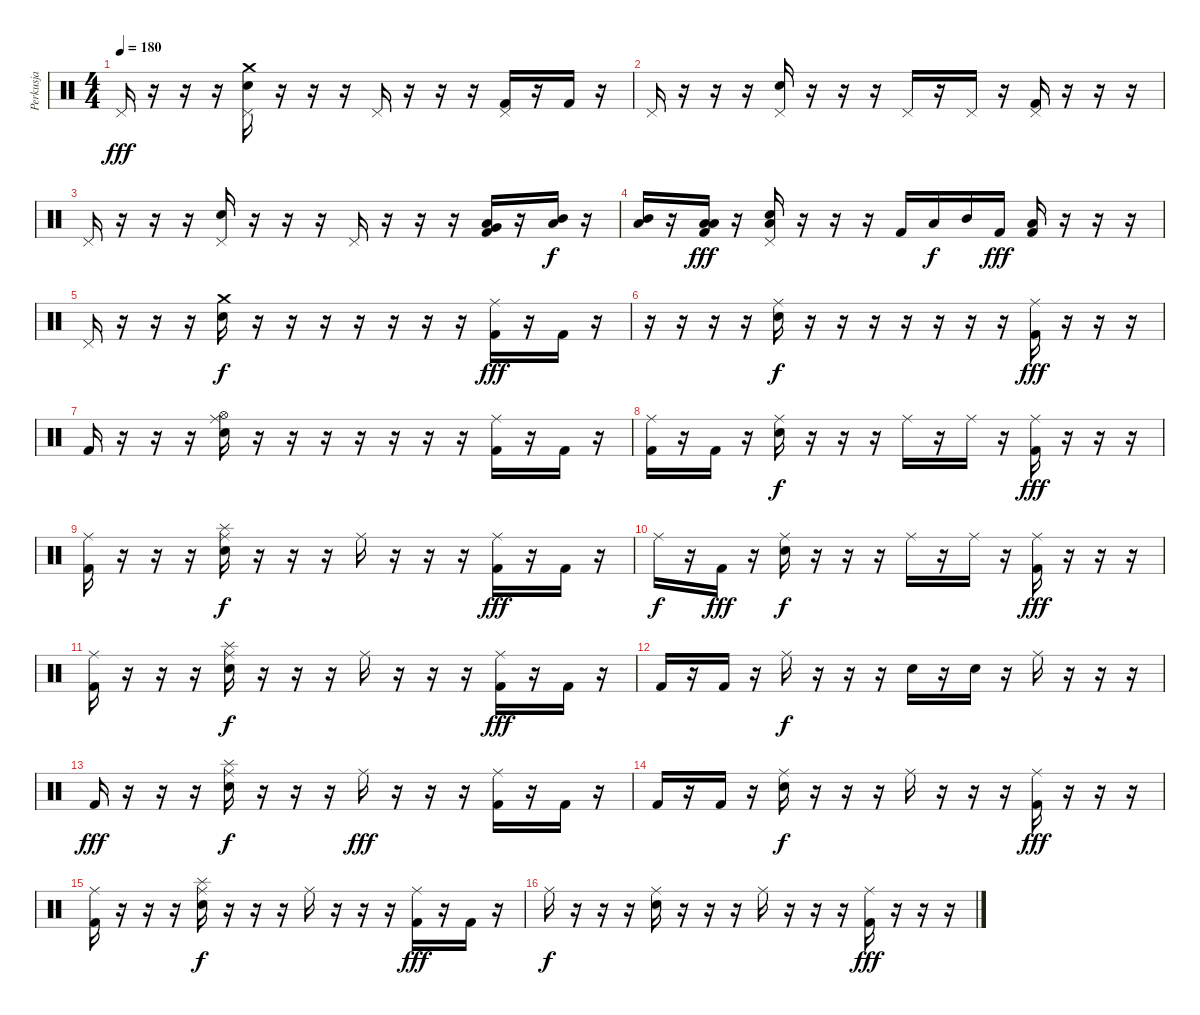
\track ("Perkusja" "Perkusja") {instrument percussion}
\staff {score}
\articulation defaults
\ts (4 4)
\tempo 180
\clef neutral
\ks c "Pedal Hi-Hat (hit)".16{dy fff}
r.16 r.16 r.16 ("Snare (hit) 2" "Crash medium (hit)" "Pedal Hi-Hat (hit)").16 r.16 r.16 r.16 "Pedal Hi-Hat (hit)".16 r.16 r.16 r.16 ("Pedal Hi-Hat (hit)" "Kick (hit) 2").16 r.16 "Kick (hit) 2".16 r.16 |
"Pedal Hi-Hat (hit)".16 r.16 r.16 r.16 ("Snare (hit) 2" "Pedal Hi-Hat (hit)").16 r.16 r.16 r.16 "Pedal Hi-Hat (hit)".16 r.16 "Pedal Hi-Hat (hit)".16 r.16 ("Pedal Hi-Hat (hit)" "Kick (hit) 2").16 r.16 r.16 r.16 |
"Pedal Hi-Hat (hit)".16 r.16 r.16 r.16 ("Snare (hit) 2" "Pedal Hi-Hat (hit)").16 r.16 r.16 r.16 "Pedal Hi-Hat (hit)".16 r.16 r.16 r.16 ("Very Low Tom (hit)" "Low Tom (hit)" "Kick (hit) 2").16 r.16 ("Mid Tom (hit)" "Low Tom (hit)").16{dy f} r.16 |
("Mid Tom (hit)" "Low Tom (hit)").16 r.16 ("Low Tom (hit)" "Low Tom (hit)" "Kick (hit) 2").16{dy fff} r.16 ("Snare (hit) 2" "Low Tom (hit)" "Pedal Hi-Hat (hit)").16 r.16 r.16 r.16 "Kick (hit) 2".16 "Low Tom (hit)".16{dy f} "Mid Tom (hit)".16 "Kick (hit) 2".16{dy fff} ("Low Tom (hit)" "Kick (hit) 2").16 r.16 r.16 r.16 |
"Pedal Hi-Hat (hit)".16 r.16 r.16 r.16 ("Snare (hit) 2" "Crash medium (hit)").16{dy f} r.16 r.16 r.16 r.16 r.16 r.16 r.16 ("Ride (middle)" "Kick (hit) 2").16{dy fff} r.16 "Kick (hit) 2".16 r.16 |
r.16 r.16 r.16 r.16 ("Snare (hit) 2" "Ride (middle)").16{dy f} r.16 r.16 r.16 r.16 r.16 r.16 r.16 ("Ride (middle)" "Kick (hit) 2").16{dy fff} r.16 r.16 r.16 |
"Kick (hit) 2".16 r.16 r.16 r.16 ("Snare (hit) 2" "Hi-Hat (open)" "Ride (middle)").16 r.16 r.16 r.16 r.16 r.16 r.16 r.16 ("Ride (middle)" "Kick (hit) 2").16 r.16 "Kick (hit) 2".16 r.16 |
("Ride (middle)" "Kick (hit) 2").16 r.16 "Kick (hit) 2".16 r.16 ("Snare (hit) 2" "Ride (middle)").16{dy f} r.16 r.16 r.16 "Ride (middle)".16 r.16 "Ride (middle)".16 r.16 ("Ride (middle)" "Kick (hit) 2").16{dy fff} r.16 r.16 r.16 |
("Ride (middle)" "Kick (hit) 2").16 r.16 r.16 r.16 ("Snare (hit) 2" "Splash (hit)" "Ride (middle)").16{dy f} r.16 r.16 r.16 "Ride (middle)".16 r.16 r.16 r.16 ("Ride (middle)" "Kick (hit) 2").16{dy fff} r.16 "Kick (hit) 2".16 r.16 |
"Ride (middle)".16{dy f} r.16 "Kick (hit) 2".16{dy fff} r.16 ("Snare (hit) 2" "Ride (middle)").16{dy f} r.16 r.16 r.16 "Ride (middle)".16 r.16 "Ride (middle)".16 r.16 ("Ride (middle)" "Kick (hit) 2").16{dy fff} r.16 r.16 r.16 |
("Ride (middle)" "Kick (hit) 2").16 r.16 r.16 r.16 ("Snare (hit) 2" "Splash (hit)" "Ride (middle)").16{dy f} r.16 r.16 r.16 "Ride (middle)".16 r.16 r.16 r.16 ("Ride (middle)" "Kick (hit) 2").16{dy fff} r.16 "Kick (hit) 2".16 r.16 |
"Kick (hit) 2".16 r.16 "Kick (hit) 2".16 r.16 "Ride (middle)".16{dy f} r.16 r.16 r.16 "Snare (hit) 2".16 r.16 "Snare (hit) 2".16 r.16 "Ride (middle)".16 r.16 r.16 r.16 |
"Kick (hit) 2".16{dy fff} r.16 r.16 r.16 ("Snare (hit) 2" "Splash (hit)" "Ride (middle)").16{dy f} r.16 r.16 r.16 "Ride (middle)".16{dy fff} r.16 r.16 r.16 ("Ride (middle)" "Kick (hit) 2").16 r.16 "Kick (hit) 2".16 r.16 |
"Kick (hit) 2".16 r.16 "Kick (hit) 2".16 r.16 ("Snare (hit) 2" "Ride (middle)").16{dy f} r.16 r.16 r.16 "Ride (middle)".16 r.16 r.16 r.16 ("Ride (middle)" "Kick (hit) 2").16{dy fff} r.16 r.16 r.16 |
("Ride (middle)" "Kick (hit) 2").16 r.16 r.16 r.16 ("Snare (hit) 2" "Splash (hit)" "Ride (middle)").16{dy f} r.16 r.16 r.16 "Ride (middle)".16 r.16 r.16 r.16 ("Ride (middle)" "Kick (hit) 2").16{dy fff} r.16 "Kick (hit) 2".16 r.16 |
"Ride (middle)".16{dy f} r.16 r.16 r.16 ("Snare (hit) 2" "Ride (middle)").16 r.16 r.16 r.16 "Ride (middle)".16 r.16 r.16 r.16 ("Ride (middle)" "Kick (hit) 2").16{dy fff} r.16 r.16 r.16
